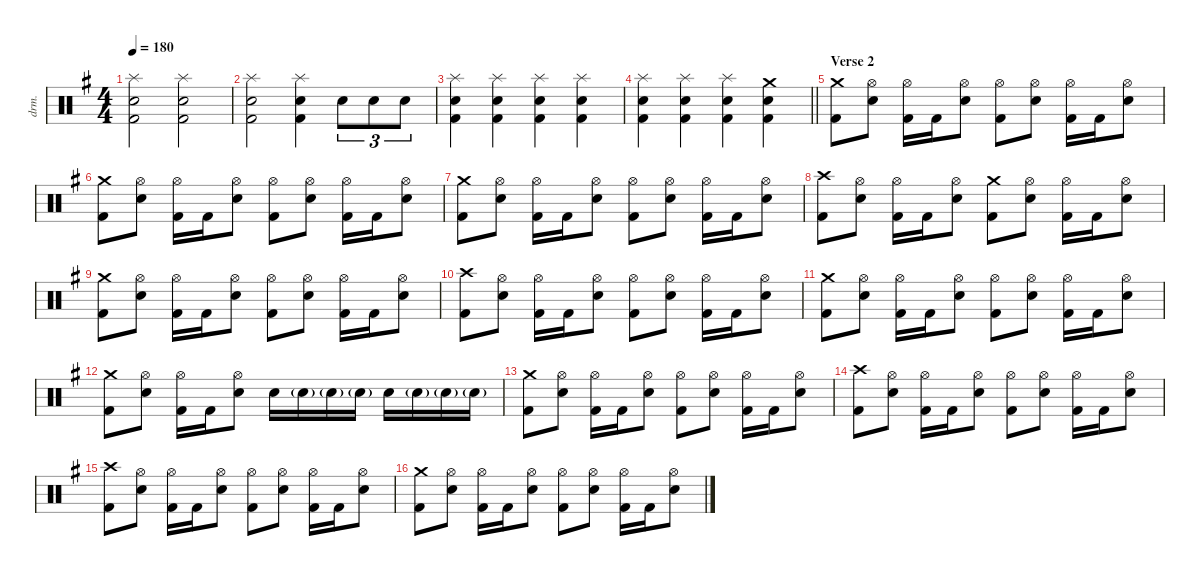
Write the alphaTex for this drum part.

\defaultSystemsLayout 4
\hideDynamics
\bracketExtendMode nobrackets
\otherSystemsTrackNameOrientation horizontal
\track ("Lars Ulrich" "drm.") {instrument percussion}
\staff {score}
\articulation defaults
\ts (4 4)
\tempo 180
\clef neutral
\ks eminor
("Splash (hit)"{acc forcenatural} "Snare (hit) 2"{acc forcenatural} "Kick (hit) 2"{acc forcenatural}).2{dy f beam Down} ("Splash (hit)"{acc forcenatural} "Snare (hit) 2"{acc forcenatural} "Kick (hit) 2"{acc forcenatural}).2{beam Down} |
("Splash (hit)"{acc forcenatural} "Snare (hit) 2"{acc forcenatural} "Kick (hit) 2"{acc forcenatural}).2{beam Down} ("Splash (hit)"{acc forcenatural} "Snare (hit) 2"{acc forcenatural} "Kick (hit) 2"{acc forcenatural}).4{beam Down} "Snare (hit) 2"{acc forcenatural}.8{tu (3 2) beam Down} "Snare (hit) 2"{acc forcenatural}.8{tu (3 2) beam Down} "Snare (hit) 2"{acc forcenatural}.8{tu (3 2) beam Down} |
("Splash (hit)"{acc forcenatural} "Snare (hit) 2"{acc forcenatural} "Kick (hit) 2"{acc forcenatural}).4{beam Down} ("Splash (hit)"{acc forcenatural} "Snare (hit) 2"{acc forcenatural} "Kick (hit) 2"{acc forcenatural}).4{beam Down} ("Splash (hit)"{acc forcenatural} "Snare (hit) 2"{acc forcenatural} "Kick (hit) 2"{acc forcenatural}).4{beam Down} ("Splash (hit)"{acc forcenatural} "Snare (hit) 2"{acc forcenatural} "Kick (hit) 2"{acc forcenatural}).4{beam Down} |
\barLineRight lightlight
("Splash (hit)"{acc forcenatural} "Snare (hit) 2"{acc forcenatural} "Kick (hit) 2"{acc forcenatural}).4{beam Down} ("Splash (hit)"{acc forcenatural} "Snare (hit) 2"{acc forcenatural} "Kick (hit) 2"{acc forcenatural}).4{beam Down} ("Splash (hit)"{acc forcenatural} "Snare (hit) 2"{acc forcenatural} "Kick (hit) 2"{acc forcenatural}).4{beam Down} ("Crash medium (hit)"{acc forcenatural} "Snare (hit) 2"{acc forcenatural} "Kick (hit) 2"{acc forcenatural}).4{beam Down} |
\section ("" "Verse 2")
("Crash medium (hit)"{acc forcenatural} "Kick (hit) 2"{acc forcenatural}).8{beam Down} ("Hi-Hat (open)"{acc forcenatural} "Snare (hit) 2"{acc forcenatural}).8{beam Down} ("Hi-Hat (open)"{acc forcenatural} "Kick (hit) 2"{acc forcenatural}).16{beam Down} "Kick (hit) 2"{acc forcenatural}.16{beam Down} ("Hi-Hat (open)"{acc forcenatural} "Snare (hit) 2"{acc forcenatural}).8{beam Down} ("Hi-Hat (open)"{acc forcenatural} "Kick (hit) 2"{acc forcenatural}).8{beam Down} ("Hi-Hat (open)"{acc forcenatural} "Snare (hit) 2"{acc forcenatural}).8{beam Down} ("Hi-Hat (open)"{acc forcenatural} "Kick (hit) 2"{acc forcenatural}).16{beam Down} "Kick (hit) 2"{acc forcenatural}.16{beam Down} ("Hi-Hat (open)"{acc forcenatural} "Snare (hit) 2"{acc forcenatural}).8{beam Down} |
("Crash medium (hit)"{acc forcenatural} "Kick (hit) 2"{acc forcenatural}).8{beam Down} ("Hi-Hat (open)"{acc forcenatural} "Snare (hit) 2"{acc forcenatural}).8{beam Down} ("Hi-Hat (open)"{acc forcenatural} "Kick (hit) 2"{acc forcenatural}).16{beam Down} "Kick (hit) 2"{acc forcenatural}.16{beam Down} ("Hi-Hat (open)"{acc forcenatural} "Snare (hit) 2"{acc forcenatural}).8{beam Down} ("Hi-Hat (open)"{acc forcenatural} "Kick (hit) 2"{acc forcenatural}).8{beam Down} ("Hi-Hat (open)"{acc forcenatural} "Snare (hit) 2"{acc forcenatural}).8{beam Down} ("Hi-Hat (open)"{acc forcenatural} "Kick (hit) 2"{acc forcenatural}).16{beam Down} "Kick (hit) 2"{acc forcenatural}.16{beam Down} ("Hi-Hat (open)"{acc forcenatural} "Snare (hit) 2"{acc forcenatural}).8{beam Down} |
("Crash medium (hit)"{acc forcenatural} "Kick (hit) 2"{acc forcenatural}).8{beam Down} ("Hi-Hat (open)"{acc forcenatural} "Snare (hit) 2"{acc forcenatural}).8{beam Down} ("Hi-Hat (open)"{acc forcenatural} "Kick (hit) 2"{acc forcenatural}).16{beam Down} "Kick (hit) 2"{acc forcenatural}.16{beam Down} ("Hi-Hat (open)"{acc forcenatural} "Snare (hit) 2"{acc forcenatural}).8{beam Down} ("Hi-Hat (open)"{acc forcenatural} "Kick (hit) 2"{acc forcenatural}).8{beam Down} ("Hi-Hat (open)"{acc forcenatural} "Snare (hit) 2"{acc forcenatural}).8{beam Down} ("Hi-Hat (open)"{acc forcenatural} "Kick (hit) 2"{acc forcenatural}).16{beam Down} "Kick (hit) 2"{acc forcenatural}.16{beam Down} ("Hi-Hat (open)"{acc forcenatural} "Snare (hit) 2"{acc forcenatural}).8{beam Down} |
("Crash high (hit)"{acc forcenatural} "Kick (hit) 2"{acc forcenatural}).8{beam Down} ("Hi-Hat (open)"{acc forcenatural} "Snare (hit) 2"{acc forcenatural}).8{beam Down} ("Hi-Hat (open)"{acc forcenatural} "Kick (hit) 2"{acc forcenatural}).16{beam Down} "Kick (hit) 2"{acc forcenatural}.16{beam Down} ("Hi-Hat (open)"{acc forcenatural} "Snare (hit) 2"{acc forcenatural}).8{beam Down} ("Crash medium (hit)"{acc forcenatural} "Kick (hit) 2"{acc forcenatural}).8{beam Down} ("Hi-Hat (open)"{acc forcenatural} "Snare (hit) 2"{acc forcenatural}).8{beam Down} ("Hi-Hat (open)"{acc forcenatural} "Kick (hit) 2"{acc forcenatural}).16{beam Down} "Kick (hit) 2"{acc forcenatural}.16{beam Down} ("Hi-Hat (open)"{acc forcenatural} "Snare (hit) 2"{acc forcenatural}).8{beam Down} |
("Crash medium (hit)"{acc forcenatural} "Kick (hit) 2"{acc forcenatural}).8{beam Down} ("Hi-Hat (open)"{acc forcenatural} "Snare (hit) 2"{acc forcenatural}).8{beam Down} ("Hi-Hat (open)"{acc forcenatural} "Kick (hit) 2"{acc forcenatural}).16{beam Down} "Kick (hit) 2"{acc forcenatural}.16{beam Down} ("Hi-Hat (open)"{acc forcenatural} "Snare (hit) 2"{acc forcenatural}).8{beam Down} ("Hi-Hat (open)"{acc forcenatural} "Kick (hit) 2"{acc forcenatural}).8{beam Down} ("Hi-Hat (open)"{acc forcenatural} "Snare (hit) 2"{acc forcenatural}).8{beam Down} ("Hi-Hat (open)"{acc forcenatural} "Kick (hit) 2"{acc forcenatural}).16{beam Down} "Kick (hit) 2"{acc forcenatural}.16{beam Down} ("Hi-Hat (open)"{acc forcenatural} "Snare (hit) 2"{acc forcenatural}).8{beam Down} |
("Crash high (hit)"{acc forcenatural} "Kick (hit) 2"{acc forcenatural}).8{beam Down} ("Hi-Hat (open)"{acc forcenatural} "Snare (hit) 2"{acc forcenatural}).8{beam Down} ("Hi-Hat (open)"{acc forcenatural} "Kick (hit) 2"{acc forcenatural}).16{beam Down} "Kick (hit) 2"{acc forcenatural}.16{beam Down} ("Hi-Hat (open)"{acc forcenatural} "Snare (hit) 2"{acc forcenatural}).8{beam Down} ("Hi-Hat (open)"{acc forcenatural} "Kick (hit) 2"{acc forcenatural}).8{beam Down} ("Hi-Hat (open)"{acc forcenatural} "Snare (hit) 2"{acc forcenatural}).8{beam Down} ("Hi-Hat (open)"{acc forcenatural} "Kick (hit) 2"{acc forcenatural}).16{beam Down} "Kick (hit) 2"{acc forcenatural}.16{beam Down} ("Hi-Hat (open)"{acc forcenatural} "Snare (hit) 2"{acc forcenatural}).8{beam Down} |
("Crash medium (hit)"{acc forcenatural} "Kick (hit) 2"{acc forcenatural}).8{beam Down} ("Hi-Hat (open)"{acc forcenatural} "Snare (hit) 2"{acc forcenatural}).8{beam Down} ("Hi-Hat (open)"{acc forcenatural} "Kick (hit) 2"{acc forcenatural}).16{beam Down} "Kick (hit) 2"{acc forcenatural}.16{beam Down} ("Hi-Hat (open)"{acc forcenatural} "Snare (hit) 2"{acc forcenatural}).8{beam Down} ("Hi-Hat (open)"{acc forcenatural} "Kick (hit) 2"{acc forcenatural}).8{beam Down} ("Hi-Hat (open)"{acc forcenatural} "Snare (hit) 2"{acc forcenatural}).8{beam Down} ("Hi-Hat (open)"{acc forcenatural} "Kick (hit) 2"{acc forcenatural}).16{beam Down} "Kick (hit) 2"{acc forcenatural}.16{beam Down} ("Hi-Hat (open)"{acc forcenatural} "Snare (hit) 2"{acc forcenatural}).8{beam Down} |
("Crash medium (hit)"{acc forcenatural} "Kick (hit) 2"{acc forcenatural}).8{beam Down} ("Hi-Hat (open)"{acc forcenatural} "Snare (hit) 2"{acc forcenatural}).8{beam Down} ("Hi-Hat (open)"{acc forcenatural} "Kick (hit) 2"{acc forcenatural}).16{beam Down} "Kick (hit) 2"{acc forcenatural}.16{beam Down} ("Hi-Hat (open)"{acc forcenatural} "Snare (hit) 2"{acc forcenatural}).8{beam Down} "Snare (hit) 2"{acc forcenatural}.16{beam Down} "Snare (hit) 2"{g acc forcenatural}.16{dy ff beam Down} "Snare (hit) 2"{g acc forcenatural}.16{beam Down} "Snare (hit) 2"{g acc forcenatural}.16{beam Down} "Snare (hit) 2"{acc forcenatural}.16{dy f beam Down} "Snare (hit) 2"{g acc forcenatural}.16{dy ff beam Down} "Snare (hit) 2"{g acc forcenatural}.16{beam Down} "Snare (hit) 2"{g acc forcenatural}.16{beam Down} |
("Crash medium (hit)"{acc forcenatural} "Kick (hit) 2"{acc forcenatural}).8{dy f beam Down} ("Hi-Hat (open)"{acc forcenatural} "Snare (hit) 2"{acc forcenatural}).8{beam Down} ("Hi-Hat (open)"{acc forcenatural} "Kick (hit) 2"{acc forcenatural}).16{beam Down} "Kick (hit) 2"{acc forcenatural}.16{beam Down} ("Hi-Hat (open)"{acc forcenatural} "Snare (hit) 2"{acc forcenatural}).8{beam Down} ("Hi-Hat (open)"{acc forcenatural} "Kick (hit) 2"{acc forcenatural}).8{beam Down} ("Hi-Hat (open)"{acc forcenatural} "Snare (hit) 2"{acc forcenatural}).8{beam Down} ("Hi-Hat (open)"{acc forcenatural} "Kick (hit) 2"{acc forcenatural}).16{beam Down} "Kick (hit) 2"{acc forcenatural}.16{beam Down} ("Hi-Hat (open)"{acc forcenatural} "Snare (hit) 2"{acc forcenatural}).8{beam Down} |
("Crash high (hit)"{acc forcenatural} "Kick (hit) 2"{acc forcenatural}).8{beam Down} ("Hi-Hat (open)"{acc forcenatural} "Snare (hit) 2"{acc forcenatural}).8{beam Down} ("Hi-Hat (open)"{acc forcenatural} "Kick (hit) 2"{acc forcenatural}).16{beam Down} "Kick (hit) 2"{acc forcenatural}.16{beam Down} ("Hi-Hat (open)"{acc forcenatural} "Snare (hit) 2"{acc forcenatural}).8{beam Down} ("Hi-Hat (open)"{acc forcenatural} "Kick (hit) 2"{acc forcenatural}).8{beam Down} ("Hi-Hat (open)"{acc forcenatural} "Snare (hit) 2"{acc forcenatural}).8{beam Down} ("Hi-Hat (open)"{acc forcenatural} "Kick (hit) 2"{acc forcenatural}).16{beam Down} "Kick (hit) 2"{acc forcenatural}.16{beam Down} ("Hi-Hat (open)"{acc forcenatural} "Snare (hit) 2"{acc forcenatural}).8{beam Down} |
("Crash high (hit)"{acc forcenatural} "Kick (hit) 2"{acc forcenatural}).8{beam Down} ("Hi-Hat (open)"{acc forcenatural} "Snare (hit) 2"{acc forcenatural}).8{beam Down} ("Hi-Hat (open)"{acc forcenatural} "Kick (hit) 2"{acc forcenatural}).16{beam Down} "Kick (hit) 2"{acc forcenatural}.16{beam Down} ("Hi-Hat (open)"{acc forcenatural} "Snare (hit) 2"{acc forcenatural}).8{beam Down} ("Hi-Hat (open)"{acc forcenatural} "Kick (hit) 2"{acc forcenatural}).8{beam Down} ("Hi-Hat (open)"{acc forcenatural} "Snare (hit) 2"{acc forcenatural}).8{beam Down} ("Hi-Hat (open)"{acc forcenatural} "Kick (hit) 2"{acc forcenatural}).16{beam Down} "Kick (hit) 2"{acc forcenatural}.16{beam Down} ("Hi-Hat (open)"{acc forcenatural} "Snare (hit) 2"{acc forcenatural}).8{beam Down} |
("Crash medium (hit)"{acc forcenatural} "Kick (hit) 2"{acc forcenatural}).8{beam Down} ("Hi-Hat (open)"{acc forcenatural} "Snare (hit) 2"{acc forcenatural}).8{beam Down} ("Hi-Hat (open)"{acc forcenatural} "Kick (hit) 2"{acc forcenatural}).16{beam Down} "Kick (hit) 2"{acc forcenatural}.16{beam Down} ("Hi-Hat (open)"{acc forcenatural} "Snare (hit) 2"{acc forcenatural}).8{beam Down} ("Hi-Hat (open)"{acc forcenatural} "Kick (hit) 2"{acc forcenatural}).8{beam Down} ("Hi-Hat (open)"{acc forcenatural} "Snare (hit) 2"{acc forcenatural}).8{beam Down} ("Hi-Hat (open)"{acc forcenatural} "Kick (hit) 2"{acc forcenatural}).16{beam Down} "Kick (hit) 2"{acc forcenatural}.16{beam Down} ("Hi-Hat (open)"{acc forcenatural} "Snare (hit) 2"{acc forcenatural}).8{beam Down}
